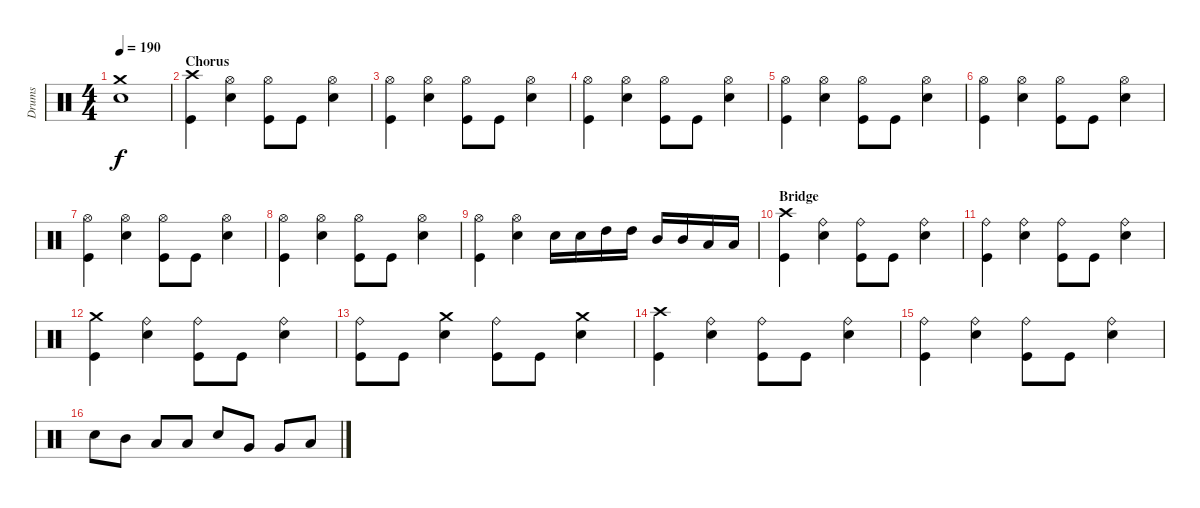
\track ("Drums" "Drums") {instrument percussion}
\staff {score}
\articulation defaults
\ts (4 4)
\tempo 190
\clef neutral
\ks c
("Crash medium (hit)" "Electric Snare (hit)").1{dy f} |
\section ("" "Chorus")
("Crash high (hit)" "Kick (hit)").4 ("Hi-Hat (open)" "Electric Snare (hit)").4 ("Hi-Hat (open)" "Kick (hit)").8 "Kick (hit)".8 ("Hi-Hat (open)" "Electric Snare (hit)").4 |
("Hi-Hat (open)" "Kick (hit)").4 ("Hi-Hat (open)" "Electric Snare (hit)").4 ("Hi-Hat (open)" "Kick (hit)").8 "Kick (hit)".8 ("Hi-Hat (open)" "Electric Snare (hit)").4 |
("Hi-Hat (open)" "Kick (hit)").4 ("Hi-Hat (open)" "Electric Snare (hit)").4 ("Hi-Hat (open)" "Kick (hit)").8 "Kick (hit)".8 ("Hi-Hat (open)" "Electric Snare (hit)").4 |
("Hi-Hat (open)" "Kick (hit)").4 ("Hi-Hat (open)" "Electric Snare (hit)").4 ("Hi-Hat (open)" "Kick (hit)").8 "Kick (hit)".8 ("Hi-Hat (open)" "Electric Snare (hit)").4 |
("Hi-Hat (open)" "Kick (hit)").4 ("Hi-Hat (open)" "Electric Snare (hit)").4 ("Hi-Hat (open)" "Kick (hit)").8 "Kick (hit)".8 ("Hi-Hat (open)" "Electric Snare (hit)").4 |
("Hi-Hat (open)" "Kick (hit)").4 ("Hi-Hat (open)" "Electric Snare (hit)").4 ("Hi-Hat (open)" "Kick (hit)").8 "Kick (hit)".8 ("Hi-Hat (open)" "Electric Snare (hit)").4 |
("Hi-Hat (open)" "Kick (hit)").4 ("Hi-Hat (open)" "Electric Snare (hit)").4 ("Hi-Hat (open)" "Kick (hit)").8 "Kick (hit)".8 ("Hi-Hat (open)" "Electric Snare (hit)").4 |
("Hi-Hat (open)" "Kick (hit)").4 ("Hi-Hat (open)" "Electric Snare (hit)").4 "Electric Snare (hit)".16 "Electric Snare (hit)".16 "High Tom (hit)".16 "High Tom (hit)".16 "Mid Tom (hit)".16 "Mid Tom (hit)".16 "Low Tom (hit)".16 "Low Tom (hit)".16 |
\section ("" "Bridge")
("Crash high (hit)" "Kick (hit)").4 ("Ride (bell)" "Electric Snare (hit)").4 ("Ride (bell)" "Kick (hit)").8 "Kick (hit)".8 ("Ride (bell)" "Electric Snare (hit)").4 |
("Ride (bell)" "Kick (hit)").4 ("Ride (bell)" "Electric Snare (hit)").4 ("Ride (bell)" "Kick (hit)").8 "Kick (hit)".8 ("Ride (bell)" "Electric Snare (hit)").4 |
("Crash medium (hit)" "Kick (hit)").4 ("Ride (bell)" "Electric Snare (hit)").4 ("Ride (bell)" "Kick (hit)").8 "Kick (hit)".8 ("Ride (bell)" "Electric Snare (hit)").4 |
("Ride (bell)" "Kick (hit)").8 "Kick (hit)".8 ("Crash medium (hit)" "Electric Snare (hit)").4 ("Ride (bell)" "Kick (hit)").8 "Kick (hit)".8 ("Crash medium (hit)" "Electric Snare (hit)").4 |
("Crash high (hit)" "Kick (hit)").4 ("Ride (bell)" "Electric Snare (hit)").4 ("Ride (bell)" "Kick (hit)").8 "Kick (hit)".8 ("Ride (bell)" "Electric Snare (hit)").4 |
("Ride (bell)" "Kick (hit)").4 ("Ride (bell)" "Electric Snare (hit)").4 ("Ride (bell)" "Kick (hit)").8 "Kick (hit)".8 ("Ride (bell)" "Electric Snare (hit)").4 |
"Electric Snare (hit)".8 "Mid Tom (hit)".8 "Low Tom (hit)".8 "Low Tom (hit)".8 "Electric Snare (hit)".8 "Very Low Tom (hit)".8 "Very Low Tom (hit)".8 "Low Floor Tom (hit)".8
